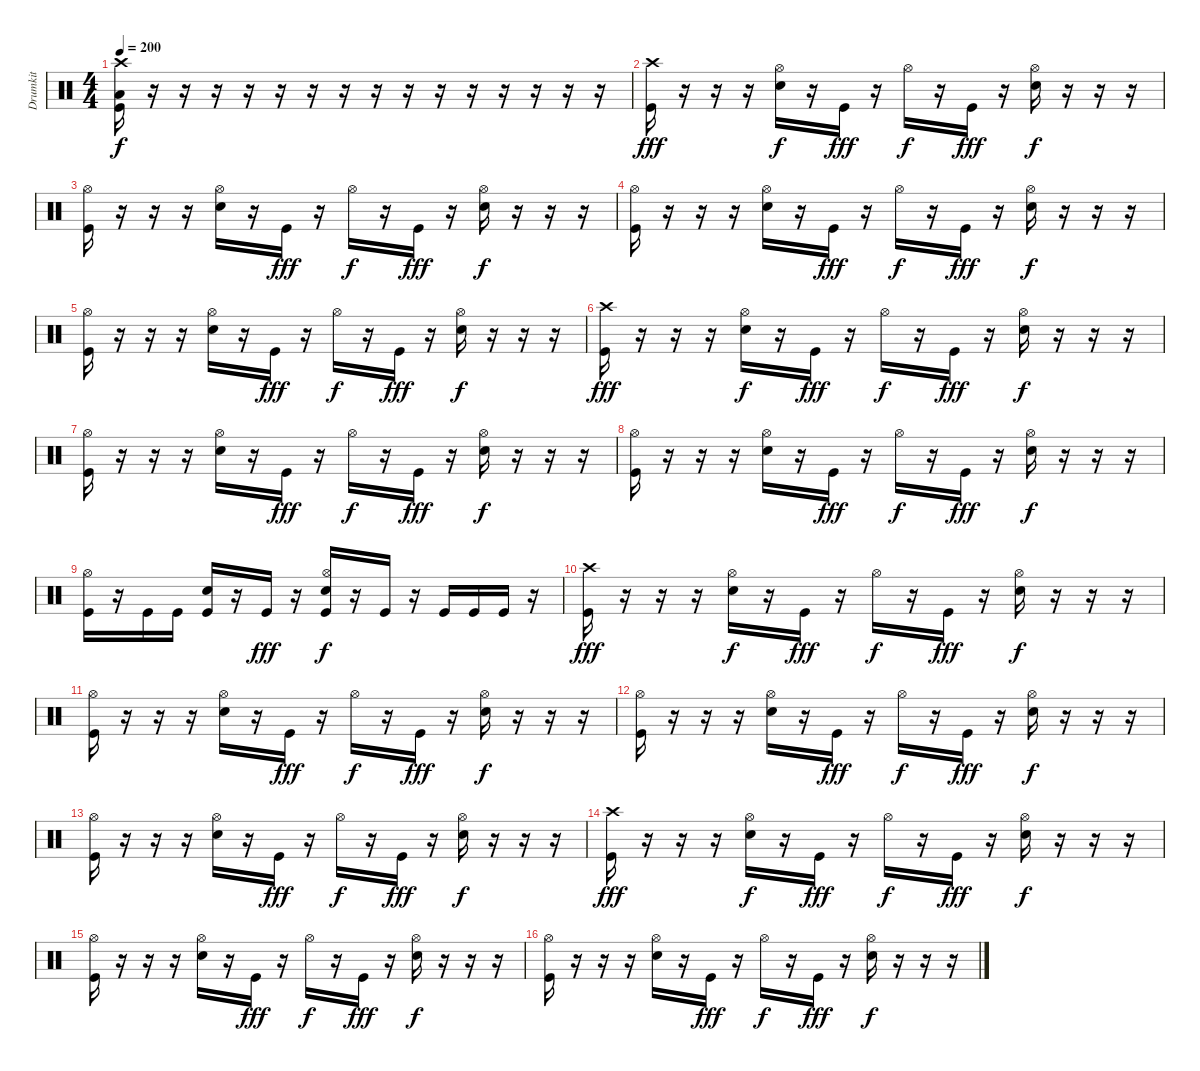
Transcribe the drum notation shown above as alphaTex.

\track ("Drumkit" "Drumkit") {instrument percussion}
\staff {score}
\articulation defaults
\ts (4 4)
\tempo 200
\clef neutral
\ks c
("Crash high (hit)" "Low Floor Tom (hit)" "Kick (hit)").16{dy f} r.16 r.16 r.16 r.16 r.16 r.16 r.16 r.16 r.16 r.16 r.16 r.16 r.16 r.16 r.16 |
("Crash high (hit)" "Kick (hit)").16{dy fff} r.16 r.16 r.16 ("Hi-Hat (open)" "Snare (hit) 2").16{dy f} r.16 "Kick (hit)".16{dy fff} r.16 "Hi-Hat (open)".16{dy f} r.16 "Kick (hit)".16{dy fff} r.16 ("Hi-Hat (open)" "Snare (hit) 2").16{dy f} r.16 r.16 r.16 |
("Hi-Hat (open)" "Kick (hit)").16 r.16 r.16 r.16 ("Hi-Hat (open)" "Snare (hit) 2").16 r.16 "Kick (hit)".16{dy fff} r.16 "Hi-Hat (open)".16{dy f} r.16 "Kick (hit)".16{dy fff} r.16 ("Hi-Hat (open)" "Snare (hit) 2").16{dy f} r.16 r.16 r.16 |
("Hi-Hat (open)" "Kick (hit)").16 r.16 r.16 r.16 ("Hi-Hat (open)" "Snare (hit) 2").16 r.16 "Kick (hit)".16{dy fff} r.16 "Hi-Hat (open)".16{dy f} r.16 "Kick (hit)".16{dy fff} r.16 ("Hi-Hat (open)" "Snare (hit) 2").16{dy f} r.16 r.16 r.16 |
("Hi-Hat (open)" "Kick (hit)").16 r.16 r.16 r.16 ("Hi-Hat (open)" "Snare (hit) 2").16 r.16 "Kick (hit)".16{dy fff} r.16 "Hi-Hat (open)".16{dy f} r.16 "Kick (hit)".16{dy fff} r.16 ("Hi-Hat (open)" "Snare (hit) 2").16{dy f} r.16 r.16 r.16 |
("Crash high (hit)" "Kick (hit)").16{dy fff} r.16 r.16 r.16 ("Hi-Hat (open)" "Snare (hit) 2").16{dy f} r.16 "Kick (hit)".16{dy fff} r.16 "Hi-Hat (open)".16{dy f} r.16 "Kick (hit)".16{dy fff} r.16 ("Hi-Hat (open)" "Snare (hit) 2").16{dy f} r.16 r.16 r.16 |
("Hi-Hat (open)" "Kick (hit)").16 r.16 r.16 r.16 ("Hi-Hat (open)" "Snare (hit) 2").16 r.16 "Kick (hit)".16{dy fff} r.16 "Hi-Hat (open)".16{dy f} r.16 "Kick (hit)".16{dy fff} r.16 ("Hi-Hat (open)" "Snare (hit) 2").16{dy f} r.16 r.16 r.16 |
("Hi-Hat (open)" "Kick (hit)").16 r.16 r.16 r.16 ("Hi-Hat (open)" "Snare (hit) 2").16 r.16 "Kick (hit)".16{dy fff} r.16 "Hi-Hat (open)".16{dy f} r.16 "Kick (hit)".16{dy fff} r.16 ("Hi-Hat (open)" "Snare (hit) 2").16{dy f} r.16 r.16 r.16 |
("Hi-Hat (open)" "Kick (hit)").16 r.16 "Kick (hit)".16 "Kick (hit)".16 ("Snare (hit) 2" "Kick (hit)").16 r.16 "Kick (hit)".16{dy fff} r.16 ("Hi-Hat (open)" "Snare (hit) 2" "Kick (hit)").16{dy f} r.16 "Kick (hit)".16 r.16 "Kick (hit)".16 "Kick (hit)".16 "Kick (hit)".16 r.16 |
("Crash high (hit)" "Kick (hit)").16{dy fff} r.16 r.16 r.16 ("Hi-Hat (open)" "Snare (hit) 2").16{dy f} r.16 "Kick (hit)".16{dy fff} r.16 "Hi-Hat (open)".16{dy f} r.16 "Kick (hit)".16{dy fff} r.16 ("Hi-Hat (open)" "Snare (hit) 2").16{dy f} r.16 r.16 r.16 |
("Hi-Hat (open)" "Kick (hit)").16 r.16 r.16 r.16 ("Hi-Hat (open)" "Snare (hit) 2").16 r.16 "Kick (hit)".16{dy fff} r.16 "Hi-Hat (open)".16{dy f} r.16 "Kick (hit)".16{dy fff} r.16 ("Hi-Hat (open)" "Snare (hit) 2").16{dy f} r.16 r.16 r.16 |
("Hi-Hat (open)" "Kick (hit)").16 r.16 r.16 r.16 ("Hi-Hat (open)" "Snare (hit) 2").16 r.16 "Kick (hit)".16{dy fff} r.16 "Hi-Hat (open)".16{dy f} r.16 "Kick (hit)".16{dy fff} r.16 ("Hi-Hat (open)" "Snare (hit) 2").16{dy f} r.16 r.16 r.16 |
("Hi-Hat (open)" "Kick (hit)").16 r.16 r.16 r.16 ("Hi-Hat (open)" "Snare (hit) 2").16 r.16 "Kick (hit)".16{dy fff} r.16 "Hi-Hat (open)".16{dy f} r.16 "Kick (hit)".16{dy fff} r.16 ("Hi-Hat (open)" "Snare (hit) 2").16{dy f} r.16 r.16 r.16 |
("Crash high (hit)" "Kick (hit)").16{dy fff} r.16 r.16 r.16 ("Hi-Hat (open)" "Snare (hit) 2").16{dy f} r.16 "Kick (hit)".16{dy fff} r.16 "Hi-Hat (open)".16{dy f} r.16 "Kick (hit)".16{dy fff} r.16 ("Hi-Hat (open)" "Snare (hit) 2").16{dy f} r.16 r.16 r.16 |
("Hi-Hat (open)" "Kick (hit)").16 r.16 r.16 r.16 ("Hi-Hat (open)" "Snare (hit) 2").16 r.16 "Kick (hit)".16{dy fff} r.16 "Hi-Hat (open)".16{dy f} r.16 "Kick (hit)".16{dy fff} r.16 ("Hi-Hat (open)" "Snare (hit) 2").16{dy f} r.16 r.16 r.16 |
("Hi-Hat (open)" "Kick (hit)").16 r.16 r.16 r.16 ("Hi-Hat (open)" "Snare (hit) 2").16 r.16 "Kick (hit)".16{dy fff} r.16 "Hi-Hat (open)".16{dy f} r.16 "Kick (hit)".16{dy fff} r.16 ("Hi-Hat (open)" "Snare (hit) 2").16{dy f} r.16 r.16 r.16
